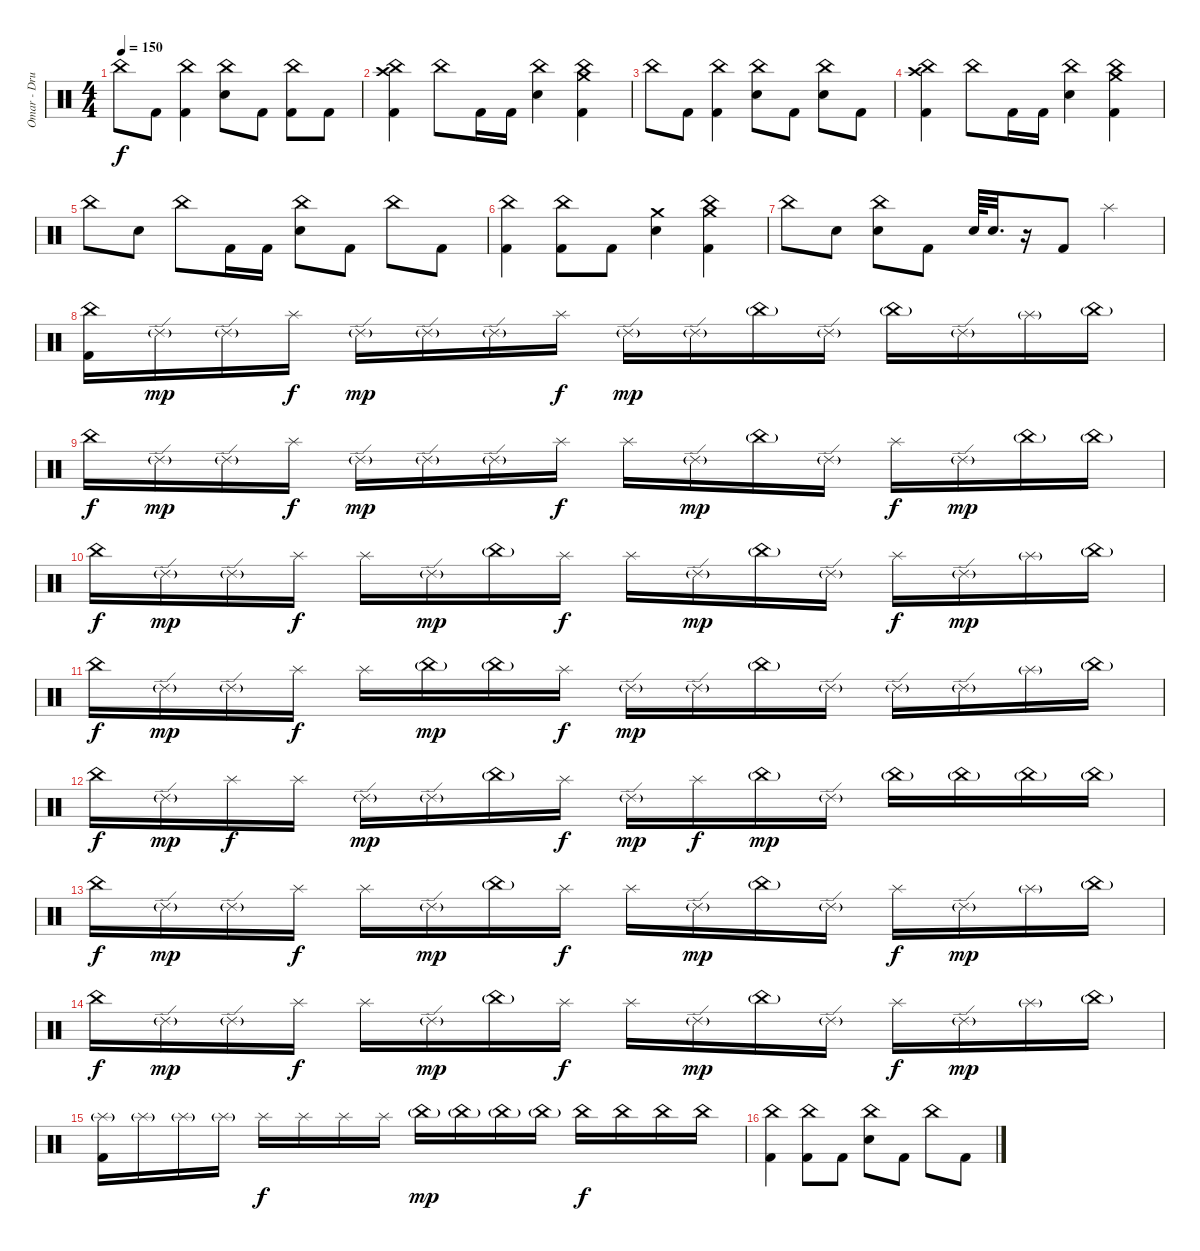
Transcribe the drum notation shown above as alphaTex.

\track ("Omar - Drums" "Omar - Dru") {instrument percussion}
\staff {score}
\articulation defaults
\ts (4 4)
\tempo 150
\clef neutral
\ks c "China (hit)".8{dy f} "Kick (hit) 2".8
("China (hit)" "Kick (hit) 2").4 ("China (hit)" "Electric Snare (hit)").8 "Kick (hit) 2".8 ("China (hit)" "Kick (hit) 2").8 "Kick (hit) 2".8 |
("China (hit)" "Crash high (hit)" "Kick (hit) 2").4 "China (hit)".8 "Kick (hit) 2".16 "Kick (hit) 2".16 ("China (hit)" "Electric Snare (hit)").4 ("China (hit)" "Crash medium (hit)" "Kick (hit) 2").4 |
"China (hit)".8 "Kick (hit) 2".8 ("China (hit)" "Kick (hit) 2").4 ("China (hit)" "Electric Snare (hit)").8 "Kick (hit) 2".8 ("China (hit)" "Electric Snare (hit)").8 "Kick (hit) 2".8 |
("China (hit)" "Crash high (hit)" "Kick (hit) 2").4 "China (hit)".8 "Kick (hit) 2".16 "Kick (hit) 2".16 ("China (hit)" "Electric Snare (hit)").4 ("China (hit)" "Crash medium (hit)" "Kick (hit) 2").4 |
"China (hit)".8 "Electric Snare (hit)".8 "China (hit)".8 "Kick (hit) 2".16 "Kick (hit) 2".16 ("China (hit)" "Electric Snare (hit)").8 "Kick (hit) 2".8 "China (hit)".8 "Kick (hit) 2".8 |
("China (hit)" "Kick (hit) 2").4 ("China (hit)" "Kick (hit) 2").8 "Kick (hit) 2".8 ("Crash medium (hit)" "Electric Snare (hit)").4 ("China (hit)" "Crash medium (hit)" "Kick (hit) 2").4 |
"China (hit)".8 "Electric Snare (hit)".8 ("China (hit)" "Electric Snare (hit)").8 "Kick (hit) 2".8 "Electric Snare (hit)".64 "Electric Snare (hit)".32{d} r.16 "Kick (hit) 2".8 "Splash (hit)".4 |
("China (hit)" "Kick (hit) 2").16 "Ride (edge) 2"{g}.16{dy mp} "Ride (edge) 2"{g}.16 "Splash (hit)".16{dy f} "Ride (edge) 2"{g}.16{dy mp} "Ride (edge) 2"{g}.16 "Ride (edge) 2"{g}.16 "Splash (hit)".16{dy f} "Ride (edge) 2"{g}.16{dy mp} "Ride (edge) 2"{g}.16 "China (hit)"{g}.16 "Ride (edge) 2"{g}.16 "China (hit)"{g}.16 "Ride (edge) 2"{g}.16 "Splash (hit)"{g}.16 "China (hit)"{g}.16 |
"China (hit)".16{dy f} "Ride (edge) 2"{g}.16{dy mp} "Ride (edge) 2"{g}.16 "Splash (hit)".16{dy f} "Ride (edge) 2"{g}.16{dy mp} "Ride (edge) 2"{g}.16 "Ride (edge) 2"{g}.16 "Splash (hit)".16{dy f} "Splash (hit)".16 "Ride (edge) 2"{g}.16{dy mp} "China (hit)"{g}.16 "Ride (edge) 2"{g}.16 "Splash (hit)".16{dy f} "Ride (edge) 2"{g}.16{dy mp} "China (hit)"{g}.16 "China (hit)"{g}.16 |
"China (hit)".16{dy f} "Ride (edge) 2"{g}.16{dy mp} "Ride (edge) 2"{g}.16 "Splash (hit)".16{dy f} "Splash (hit)".16 "Ride (edge) 2"{g}.16{dy mp} "China (hit)"{g}.16 "Splash (hit)".16{dy f} "Splash (hit)".16 "Ride (edge) 2"{g}.16{dy mp} "China (hit)"{g}.16 "Ride (edge) 2"{g}.16 "Splash (hit)".16{dy f} "Ride (edge) 2"{g}.16{dy mp} "Splash (hit)"{g}.16 "China (hit)"{g}.16 |
"China (hit)".16{dy f} "Ride (edge) 2"{g}.16{dy mp} "Ride (edge) 2"{g}.16 "Splash (hit)".16{dy f} "Splash (hit)".16 "China (hit)"{g}.16{dy mp} "China (hit)"{g}.16 "Splash (hit)".16{dy f} "Ride (edge) 2"{g}.16{dy mp} "Ride (edge) 2"{g}.16 "China (hit)"{g}.16 "Ride (edge) 2"{g}.16 "Ride (edge) 2"{g}.16 "Ride (edge) 2"{g}.16 "Splash (hit)"{g}.16 "China (hit)"{g}.16 |
"China (hit)".16{dy f} "Ride (edge) 2"{g}.16{dy mp} "Splash (hit)".16{dy f} "Splash (hit)".16 "Ride (edge) 2"{g}.16{dy mp} "Ride (edge) 2"{g}.16 "China (hit)"{g}.16 "Splash (hit)".16{dy f} "Ride (edge) 2"{g}.16{dy mp} "Splash (hit)".16{dy f} "China (hit)"{g}.16{dy mp} "Ride (edge) 2"{g}.16 "China (hit)"{g}.16 "China (hit)"{g}.16 "China (hit)"{g}.16 "China (hit)"{g}.16 |
"China (hit)".16{dy f} "Ride (edge) 2"{g}.16{dy mp} "Ride (edge) 2"{g}.16 "Splash (hit)".16{dy f} "Splash (hit)".16 "Ride (edge) 2"{g}.16{dy mp} "China (hit)"{g}.16 "Splash (hit)".16{dy f} "Splash (hit)".16 "Ride (edge) 2"{g}.16{dy mp} "China (hit)"{g}.16 "Ride (edge) 2"{g}.16 "Splash (hit)".16{dy f} "Ride (edge) 2"{g}.16{dy mp} "Splash (hit)"{g}.16 "China (hit)"{g}.16 |
"China (hit)".16{dy f} "Ride (edge) 2"{g}.16{dy mp} "Ride (edge) 2"{g}.16 "Splash (hit)".16{dy f} "Splash (hit)".16 "Ride (edge) 2"{g}.16{dy mp} "China (hit)"{g}.16 "Splash (hit)".16{dy f} "Splash (hit)".16 "Ride (edge) 2"{g}.16{dy mp} "China (hit)"{g}.16 "Ride (edge) 2"{g}.16 "Splash (hit)".16{dy f} "Ride (edge) 2"{g}.16{dy mp} "Splash (hit)"{g}.16 "China (hit)"{g}.16 |
("Splash (hit)"{g} "Kick (hit) 2").16 "Splash (hit)"{g}.16 "Splash (hit)"{g}.16 "Splash (hit)"{g}.16 "Splash (hit)".16{dy f} "Splash (hit)".16 "Splash (hit)".16 "Splash (hit)".16 "China (hit)"{g}.16{dy mp} "China (hit)"{g}.16 "China (hit)"{g}.16 "China (hit)"{g}.16 "China (hit)".16{dy f} "China (hit)".16 "China (hit)".16 "China (hit)".16 |
("China (hit)" "Kick (hit) 2").4 ("China (hit)" "Kick (hit) 2").8 "Kick (hit) 2".8 ("China (hit)" "Electric Snare (hit)").8 "Kick (hit) 2".8 "China (hit)".8 "Kick (hit) 2".8
